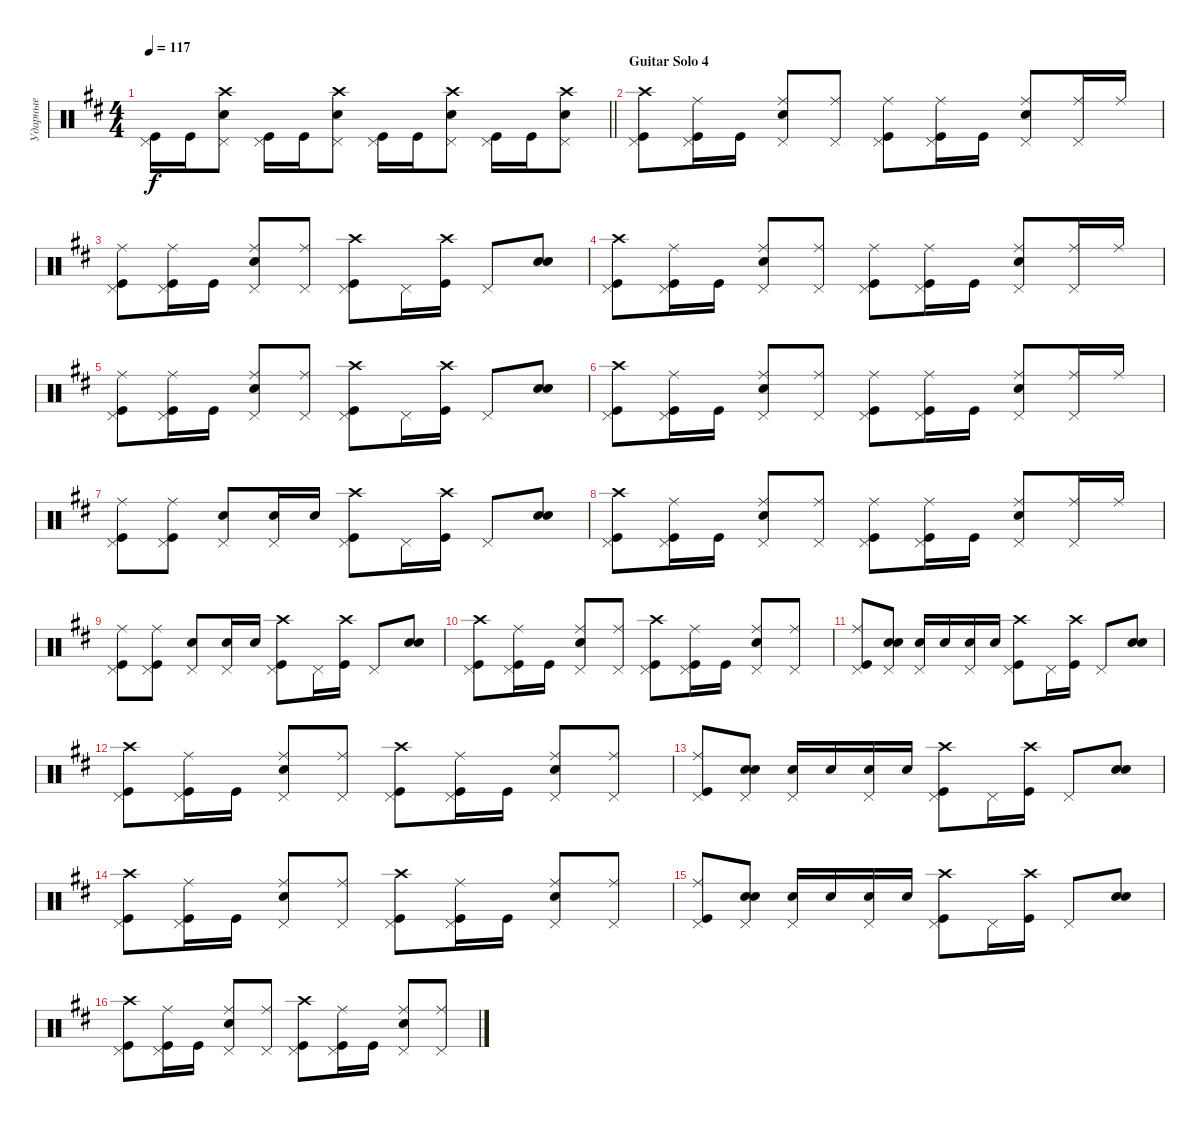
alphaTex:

\track ("Ударные" "Ударные") {instrument percussion}
\staff {score}
\articulation defaults
\ts (4 4)
\tempo 117
\clef neutral
\barLineRight lightlight
\ks bminor
("Kick (hit)" "Pedal Hi-Hat (hit)").16{dy f} "Kick (hit)".16 ("Snare (hit) 2" "Crash high (hit)" "Pedal Hi-Hat (hit)").8 ("Kick (hit)" "Pedal Hi-Hat (hit)").16 "Kick (hit)".16 ("Snare (hit) 2" "Crash high (hit)" "Pedal Hi-Hat (hit)").8 ("Kick (hit)" "Pedal Hi-Hat (hit)").16 "Kick (hit)".16 ("Snare (hit) 2" "Crash high (hit)" "Pedal Hi-Hat (hit)").8 ("Kick (hit)" "Pedal Hi-Hat (hit)").16 "Kick (hit)".16 ("Snare (hit) 2" "Crash high (hit)" "Pedal Hi-Hat (hit)").8 |
\section ("" "Guitar Solo 4")
("Kick (hit)" "Crash high (hit)" "Pedal Hi-Hat (hit)").8 ("Kick (hit)" "Ride (middle)" "Pedal Hi-Hat (hit)").16 "Kick (hit)".16 ("Snare (hit) 2" "Ride (middle)" "Pedal Hi-Hat (hit)").8 ("Ride (middle)" "Pedal Hi-Hat (hit)").8 ("Kick (hit)" "Ride (middle)" "Pedal Hi-Hat (hit)").8 ("Kick (hit)" "Ride (middle)" "Pedal Hi-Hat (hit)").16 "Kick (hit)".16 ("Snare (hit) 2" "Ride (middle)" "Pedal Hi-Hat (hit)").8 ("Ride (middle)" "Pedal Hi-Hat (hit)").16 "Ride (middle)".16 |
("Kick (hit)" "Ride (middle)" "Pedal Hi-Hat (hit)").8 ("Kick (hit)" "Ride (middle)" "Pedal Hi-Hat (hit)").16 "Kick (hit)".16 ("Snare (hit) 2" "Ride (middle)" "Pedal Hi-Hat (hit)").8 ("Ride (middle)" "Pedal Hi-Hat (hit)").8 ("Kick (hit)" "Crash high (hit)" "Pedal Hi-Hat (hit)").8 "Pedal Hi-Hat (hit)".16 ("Kick (hit)" "Crash high (hit)").16 "Pedal Hi-Hat (hit)".8 ("Snare (hit) 2" "Snare (hit) 2").8{bd 240} |
("Kick (hit)" "Crash high (hit)" "Pedal Hi-Hat (hit)").8 ("Kick (hit)" "Ride (middle)" "Pedal Hi-Hat (hit)").16 "Kick (hit)".16 ("Snare (hit) 2" "Ride (middle)" "Pedal Hi-Hat (hit)").8 ("Ride (middle)" "Pedal Hi-Hat (hit)").8 ("Kick (hit)" "Ride (middle)" "Pedal Hi-Hat (hit)").8 ("Kick (hit)" "Ride (middle)" "Pedal Hi-Hat (hit)").16 "Kick (hit)".16 ("Snare (hit) 2" "Ride (middle)" "Pedal Hi-Hat (hit)").8 ("Ride (middle)" "Pedal Hi-Hat (hit)").16 "Ride (middle)".16 |
("Kick (hit)" "Ride (middle)" "Pedal Hi-Hat (hit)").8 ("Kick (hit)" "Ride (middle)" "Pedal Hi-Hat (hit)").16 "Kick (hit)".16 ("Snare (hit) 2" "Ride (middle)" "Pedal Hi-Hat (hit)").8 ("Ride (middle)" "Pedal Hi-Hat (hit)").8 ("Kick (hit)" "Crash high (hit)" "Pedal Hi-Hat (hit)").8 "Pedal Hi-Hat (hit)".16 ("Kick (hit)" "Crash high (hit)").16 "Pedal Hi-Hat (hit)".8 ("Snare (hit) 2" "Snare (hit) 2").8{bd 240} |
("Kick (hit)" "Crash high (hit)" "Pedal Hi-Hat (hit)").8 ("Kick (hit)" "Ride (middle)" "Pedal Hi-Hat (hit)").16 "Kick (hit)".16 ("Snare (hit) 2" "Ride (middle)" "Pedal Hi-Hat (hit)").8 ("Ride (middle)" "Pedal Hi-Hat (hit)").8 ("Kick (hit)" "Ride (middle)" "Pedal Hi-Hat (hit)").8 ("Kick (hit)" "Ride (middle)" "Pedal Hi-Hat (hit)").16 "Kick (hit)".16 ("Snare (hit) 2" "Ride (middle)" "Pedal Hi-Hat (hit)").8 ("Ride (middle)" "Pedal Hi-Hat (hit)").16 "Ride (middle)".16 |
("Kick (hit)" "Ride (middle)" "Pedal Hi-Hat (hit)").8 ("Kick (hit)" "Ride (middle)" "Pedal Hi-Hat (hit)").8 ("Snare (hit) 2" "Pedal Hi-Hat (hit)").8 ("Snare (hit) 2" "Pedal Hi-Hat (hit)").16 "Snare (hit) 2".16 ("Kick (hit)" "Crash high (hit)" "Pedal Hi-Hat (hit)").8 "Pedal Hi-Hat (hit)".16 ("Kick (hit)" "Crash high (hit)").16 "Pedal Hi-Hat (hit)".8 ("Snare (hit) 2" "Snare (hit) 2").8{bd 240} |
("Kick (hit)" "Crash high (hit)" "Pedal Hi-Hat (hit)").8 ("Kick (hit)" "Ride (middle)" "Pedal Hi-Hat (hit)").16 "Kick (hit)".16 ("Snare (hit) 2" "Ride (middle)" "Pedal Hi-Hat (hit)").8 ("Ride (middle)" "Pedal Hi-Hat (hit)").8 ("Kick (hit)" "Ride (middle)" "Pedal Hi-Hat (hit)").8 ("Kick (hit)" "Ride (middle)" "Pedal Hi-Hat (hit)").16 "Kick (hit)".16 ("Snare (hit) 2" "Ride (middle)" "Pedal Hi-Hat (hit)").8 ("Ride (middle)" "Pedal Hi-Hat (hit)").16 "Ride (middle)".16 |
("Kick (hit)" "Ride (middle)" "Pedal Hi-Hat (hit)").8 ("Kick (hit)" "Ride (middle)" "Pedal Hi-Hat (hit)").8 ("Snare (hit) 2" "Pedal Hi-Hat (hit)").8 ("Snare (hit) 2" "Pedal Hi-Hat (hit)").16 "Snare (hit) 2".16 ("Kick (hit)" "Crash high (hit)" "Pedal Hi-Hat (hit)").8 "Pedal Hi-Hat (hit)".16 ("Kick (hit)" "Crash high (hit)").16 "Pedal Hi-Hat (hit)".8 ("Snare (hit) 2" "Snare (hit) 2").8{bd 240} |
("Kick (hit)" "Crash high (hit)" "Pedal Hi-Hat (hit)").8 ("Kick (hit)" "Ride (middle)" "Pedal Hi-Hat (hit)").16 "Kick (hit)".16 ("Snare (hit) 2" "Ride (middle)" "Pedal Hi-Hat (hit)").8 ("Ride (middle)" "Pedal Hi-Hat (hit)").8 ("Kick (hit)" "Crash high (hit)" "Pedal Hi-Hat (hit)").8 ("Kick (hit)" "Ride (middle)" "Pedal Hi-Hat (hit)").16 "Kick (hit)".16 ("Snare (hit) 2" "Ride (middle)" "Pedal Hi-Hat (hit)").8 ("Ride (middle)" "Pedal Hi-Hat (hit)").8 |
("Kick (hit)" "Ride (middle)" "Pedal Hi-Hat (hit)").8 ("Snare (hit) 2" "Snare (hit) 2" "Pedal Hi-Hat (hit)").8{bd 240} ("Snare (hit) 2" "Pedal Hi-Hat (hit)").16 "Snare (hit) 2".16 ("Snare (hit) 2" "Pedal Hi-Hat (hit)").16 "Snare (hit) 2".16 ("Kick (hit)" "Crash high (hit)" "Pedal Hi-Hat (hit)").8 "Pedal Hi-Hat (hit)".16 ("Kick (hit)" "Crash high (hit)").16 "Pedal Hi-Hat (hit)".8 ("Snare (hit) 2" "Snare (hit) 2").8{bd 240} |
("Kick (hit)" "Crash high (hit)" "Pedal Hi-Hat (hit)").8 ("Kick (hit)" "Ride (middle)" "Pedal Hi-Hat (hit)").16 "Kick (hit)".16 ("Snare (hit) 2" "Ride (middle)" "Pedal Hi-Hat (hit)").8 ("Ride (middle)" "Pedal Hi-Hat (hit)").8 ("Kick (hit)" "Crash high (hit)" "Pedal Hi-Hat (hit)").8 ("Kick (hit)" "Ride (middle)" "Pedal Hi-Hat (hit)").16 "Kick (hit)".16 ("Snare (hit) 2" "Ride (middle)" "Pedal Hi-Hat (hit)").8 ("Ride (middle)" "Pedal Hi-Hat (hit)").8 |
("Kick (hit)" "Ride (middle)" "Pedal Hi-Hat (hit)").8 ("Snare (hit) 2" "Snare (hit) 2" "Pedal Hi-Hat (hit)").8{bd 240} ("Snare (hit) 2" "Pedal Hi-Hat (hit)").16 "Snare (hit) 2".16 ("Snare (hit) 2" "Pedal Hi-Hat (hit)").16 "Snare (hit) 2".16 ("Kick (hit)" "Crash high (hit)" "Pedal Hi-Hat (hit)").8 "Pedal Hi-Hat (hit)".16 ("Kick (hit)" "Crash high (hit)").16 "Pedal Hi-Hat (hit)".8 ("Snare (hit) 2" "Snare (hit) 2").8{bd 240} |
("Kick (hit)" "Crash high (hit)" "Pedal Hi-Hat (hit)").8 ("Kick (hit)" "Ride (middle)" "Pedal Hi-Hat (hit)").16 "Kick (hit)".16 ("Snare (hit) 2" "Ride (middle)" "Pedal Hi-Hat (hit)").8 ("Ride (middle)" "Pedal Hi-Hat (hit)").8 ("Kick (hit)" "Crash high (hit)" "Pedal Hi-Hat (hit)").8 ("Kick (hit)" "Ride (middle)" "Pedal Hi-Hat (hit)").16 "Kick (hit)".16 ("Snare (hit) 2" "Ride (middle)" "Pedal Hi-Hat (hit)").8 ("Ride (middle)" "Pedal Hi-Hat (hit)").8 |
("Kick (hit)" "Ride (middle)" "Pedal Hi-Hat (hit)").8 ("Snare (hit) 2" "Snare (hit) 2" "Pedal Hi-Hat (hit)").8{bd 240} ("Snare (hit) 2" "Pedal Hi-Hat (hit)").16 "Snare (hit) 2".16 ("Snare (hit) 2" "Pedal Hi-Hat (hit)").16 "Snare (hit) 2".16 ("Kick (hit)" "Crash high (hit)" "Pedal Hi-Hat (hit)").8 "Pedal Hi-Hat (hit)".16 ("Kick (hit)" "Crash high (hit)").16 "Pedal Hi-Hat (hit)".8 ("Snare (hit) 2" "Snare (hit) 2").8{bd 240} |
("Kick (hit)" "Crash high (hit)" "Pedal Hi-Hat (hit)").8 ("Kick (hit)" "Ride (middle)" "Pedal Hi-Hat (hit)").16 "Kick (hit)".16 ("Snare (hit) 2" "Ride (middle)" "Pedal Hi-Hat (hit)").8 ("Ride (middle)" "Pedal Hi-Hat (hit)").8 ("Kick (hit)" "Crash high (hit)" "Pedal Hi-Hat (hit)").8 ("Kick (hit)" "Ride (middle)" "Pedal Hi-Hat (hit)").16 "Kick (hit)".16 ("Snare (hit) 2" "Ride (middle)" "Pedal Hi-Hat (hit)").8 ("Ride (middle)" "Pedal Hi-Hat (hit)").8
